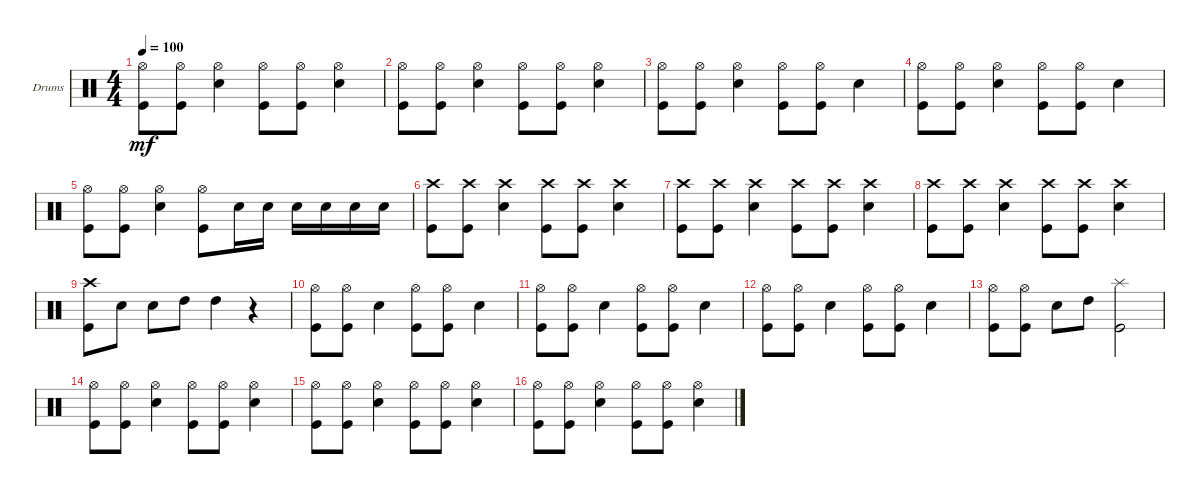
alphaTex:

\defaultSystemsLayout 4
\bracketExtendMode groupsimilarinstruments
\firstSystemTrackNameOrientation horizontal
\otherSystemsTrackNameOrientation horizontal
\track ("Drumkit" "Drums") {instrument percussion}
\staff {score}
\articulation defaults
\ts (4 4)
\tempo 100
\clef neutral
\ks c
("Kick (hit)" "Hi-Hat (open)").8{dy mf} ("Kick (hit)" "Hi-Hat (open)").8 ("Snare (hit) 2" "Hi-Hat (open)").4 ("Kick (hit)" "Hi-Hat (open)").8 ("Kick (hit)" "Hi-Hat (open)").8 ("Snare (hit) 2" "Hi-Hat (open)").4 |
("Kick (hit)" "Hi-Hat (open)").8 ("Kick (hit)" "Hi-Hat (open)").8 ("Snare (hit) 2" "Hi-Hat (open)").4 ("Kick (hit)" "Hi-Hat (open)").8 ("Kick (hit)" "Hi-Hat (open)").8 ("Snare (hit) 2" "Hi-Hat (open)").4 |
("Kick (hit)" "Hi-Hat (open)").8 ("Kick (hit)" "Hi-Hat (open)").8 ("Snare (hit) 2" "Hi-Hat (open)").4 ("Kick (hit)" "Hi-Hat (open)").8 ("Kick (hit)" "Hi-Hat (open)").8 "Snare (hit) 2".4 |
("Kick (hit)" "Hi-Hat (open)").8 ("Kick (hit)" "Hi-Hat (open)").8 ("Snare (hit) 2" "Hi-Hat (open)").4 ("Kick (hit)" "Hi-Hat (open)").8 ("Kick (hit)" "Hi-Hat (open)").8 "Snare (hit) 2".4 |
("Kick (hit)" "Hi-Hat (open)").8 ("Kick (hit)" "Hi-Hat (open)").8 ("Snare (hit) 2" "Hi-Hat (open)").4 ("Kick (hit)" "Hi-Hat (open)").8 "Snare (hit) 2".16 "Snare (hit) 2".16 "Snare (hit) 2".16 "Snare (hit) 2".16 "Snare (hit) 2".16 "Snare (hit) 2".16 |
("Kick (hit)" "Crash high (hit)").8 ("Kick (hit)" "Crash high (hit)").8 ("Snare (hit) 2" "Crash high (hit)").4 ("Kick (hit)" "Crash high (hit)").8 ("Kick (hit)" "Crash high (hit)").8 ("Snare (hit) 2" "Crash high (hit)").4 |
("Kick (hit)" "Crash high (hit)").8 ("Kick (hit)" "Crash high (hit)").8 ("Snare (hit) 2" "Crash high (hit)").4 ("Kick (hit)" "Crash high (hit)").8 ("Kick (hit)" "Crash high (hit)").8 ("Snare (hit) 2" "Crash high (hit)").4 |
("Kick (hit)" "Crash high (hit)").8 ("Kick (hit)" "Crash high (hit)").8 ("Snare (hit) 2" "Crash high (hit)").4 ("Kick (hit)" "Crash high (hit)").8 ("Kick (hit)" "Crash high (hit)").8 ("Snare (hit) 2" "Crash high (hit)").4 |
("Crash high (hit)" "Kick (hit)").8 "Snare (hit) 2".8 "Snare (hit) 2".8 "High Tom (hit)".8 "High Tom (hit)".4 r.4 |
("Kick (hit)" "Hi-Hat (open)").8 ("Kick (hit)" "Hi-Hat (open)").8 "Snare (hit) 2".4 ("Kick (hit)" "Hi-Hat (open)").8 ("Kick (hit)" "Hi-Hat (open)").8 "Snare (hit) 2".4 |
("Kick (hit)" "Hi-Hat (open)").8 ("Kick (hit)" "Hi-Hat (open)").8 "Snare (hit) 2".4 ("Kick (hit)" "Hi-Hat (open)").8 ("Kick (hit)" "Hi-Hat (open)").8 "Snare (hit) 2".4 |
("Kick (hit)" "Hi-Hat (open)").8 ("Kick (hit)" "Hi-Hat (open)").8 "Snare (hit) 2".4 ("Kick (hit)" "Hi-Hat (open)").8 ("Kick (hit)" "Hi-Hat (open)").8 "Snare (hit) 2".4 |
("Kick (hit)" "Hi-Hat (open)").8 ("Kick (hit)" "Hi-Hat (open)").8 "Snare (hit) 2".8 "High Tom (hit)".8 ("Kick (hit)" "Splash (hit)").2 |
("Kick (hit)" "Hi-Hat (open)").8 ("Kick (hit)" "Hi-Hat (open)").8 ("Snare (hit) 2" "Hi-Hat (open)").4 ("Kick (hit)" "Hi-Hat (open)").8 ("Kick (hit)" "Hi-Hat (open)").8 ("Snare (hit) 2" "Hi-Hat (open)").4 |
("Kick (hit)" "Hi-Hat (open)").8 ("Kick (hit)" "Hi-Hat (open)").8 ("Snare (hit) 2" "Hi-Hat (open)").4 ("Kick (hit)" "Hi-Hat (open)").8 ("Kick (hit)" "Hi-Hat (open)").8 ("Snare (hit) 2" "Hi-Hat (open)").4 |
("Kick (hit)" "Hi-Hat (open)").8 ("Kick (hit)" "Hi-Hat (open)").8 ("Snare (hit) 2" "Hi-Hat (open)").4 ("Kick (hit)" "Hi-Hat (open)").8 ("Kick (hit)" "Hi-Hat (open)").8 ("Snare (hit) 2" "Hi-Hat (open)").4
